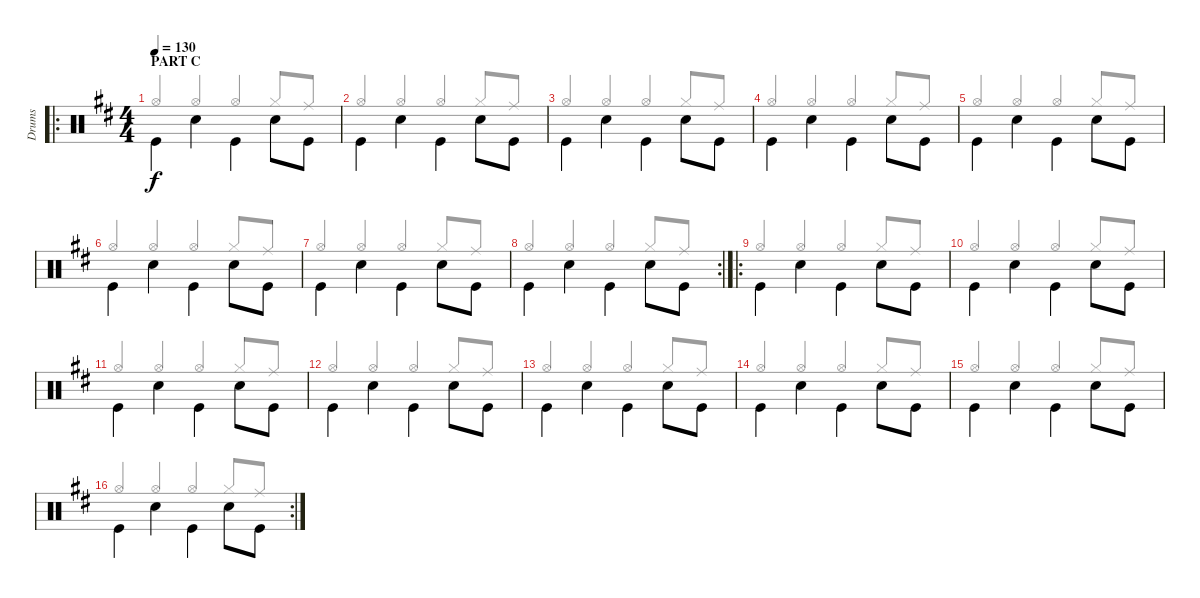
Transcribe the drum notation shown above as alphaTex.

\track ("Drums" "Drums") {instrument percussion}
\staff {score}
\articulation defaults
\voice
\ro
\ts (4 4)
\section ("" "PART C")
\tempo 130
\clef neutral
\ks d "Kick (hit)".4{dy f beam Down} "Snare (hit) 2".4{beam Down} "Kick (hit)".4{beam Down} "Snare (hit) 2".8{beam Down} "Kick (hit)".8{beam Down}
|
"Kick (hit)".4{beam Down} "Snare (hit) 2".4{beam Down} "Kick (hit)".4{beam Down} "Snare (hit) 2".8{beam Down} "Kick (hit)".8{beam Down} |
"Kick (hit)".4{beam Down} "Snare (hit) 2".4{beam Down} "Kick (hit)".4{beam Down} "Snare (hit) 2".8{beam Down} "Kick (hit)".8{beam Down} |
"Kick (hit)".4{beam Down} "Snare (hit) 2".4{beam Down} "Kick (hit)".4{beam Down} "Snare (hit) 2".8{beam Down} "Kick (hit)".8{beam Down} |
"Kick (hit)".4{beam Down} "Snare (hit) 2".4{beam Down} "Kick (hit)".4{beam Down} "Snare (hit) 2".8{beam Down} "Kick (hit)".8{beam Down} |
"Kick (hit)".4{beam Down} "Snare (hit) 2".4{beam Down} "Kick (hit)".4{beam Down} "Snare (hit) 2".8{beam Down} "Kick (hit)".8{beam Down} |
"Kick (hit)".4{beam Down} "Snare (hit) 2".4{beam Down} "Kick (hit)".4{beam Down} "Snare (hit) 2".8{beam Down} "Kick (hit)".8{beam Down} |
\rc 2 "Kick (hit)".4{beam Down} "Snare (hit) 2".4{beam Down} "Kick (hit)".4{beam Down} "Snare (hit) 2".8{beam Down} "Kick (hit)".8{beam Down}
|
\ro "Kick (hit)".4{beam Down} "Snare (hit) 2".4{beam Down} "Kick (hit)".4{beam Down} "Snare (hit) 2".8{beam Down} "Kick (hit)".8{beam Down}
|
"Kick (hit)".4{beam Down} "Snare (hit) 2".4{beam Down} "Kick (hit)".4{beam Down} "Snare (hit) 2".8{beam Down} "Kick (hit)".8{beam Down} |
"Kick (hit)".4{beam Down} "Snare (hit) 2".4{beam Down} "Kick (hit)".4{beam Down} "Snare (hit) 2".8{beam Down} "Kick (hit)".8{beam Down} |
"Kick (hit)".4{beam Down} "Snare (hit) 2".4{beam Down} "Kick (hit)".4{beam Down} "Snare (hit) 2".8{beam Down} "Kick (hit)".8{beam Down} |
"Kick (hit)".4{beam Down} "Snare (hit) 2".4{beam Down} "Kick (hit)".4{beam Down} "Snare (hit) 2".8{beam Down} "Kick (hit)".8{beam Down} |
"Kick (hit)".4{beam Down} "Snare (hit) 2".4{beam Down} "Kick (hit)".4{beam Down} "Snare (hit) 2".8{beam Down} "Kick (hit)".8{beam Down} |
"Kick (hit)".4{beam Down} "Snare (hit) 2".4{beam Down} "Kick (hit)".4{beam Down} "Snare (hit) 2".8{beam Down} "Kick (hit)".8{beam Down} |
\rc 2 "Kick (hit)".4{beam Down} "Snare (hit) 2".4{beam Down} "Kick (hit)".4{beam Down} "Snare (hit) 2".8{beam Down} "Kick (hit)".8{beam Down}
\voice
\clef neutral
\ottava regular
\simile none
\ks d "Hi-Hat (open)".4{dy f beam Up} "Hi-Hat (open)".4{beam Up} "Hi-Hat (open)".4{beam Up} "Hi-Hat (closed)".8{beam Up} "Ride (middle)".8{beam Up}
|
"Hi-Hat (open)".4{beam Up} "Hi-Hat (open)".4{beam Up} "Hi-Hat (open)".4{beam Up} "Hi-Hat (closed)".8{beam Up} "Ride (middle)".8{beam Up} |
"Hi-Hat (open)".4{beam Up} "Hi-Hat (open)".4{beam Up} "Hi-Hat (open)".4{beam Up} "Hi-Hat (closed)".8{beam Up} "Ride (middle)".8{beam Up} |
"Hi-Hat (open)".4{beam Up} "Hi-Hat (open)".4{beam Up} "Hi-Hat (open)".4{beam Up} "Hi-Hat (closed)".8{beam Up} "Ride (middle)".8{beam Up} |
"Hi-Hat (open)".4{beam Up} "Hi-Hat (open)".4{beam Up} "Hi-Hat (open)".4{beam Up} "Hi-Hat (closed)".8{beam Up} "Ride (middle)".8{beam Up} |
"Hi-Hat (open)".4{beam Up} "Hi-Hat (open)".4{beam Up} "Hi-Hat (open)".4{beam Up} "Hi-Hat (closed)".8{beam Up} "Ride (middle)".8{beam Up} |
"Hi-Hat (open)".4{beam Up} "Hi-Hat (open)".4{beam Up} "Hi-Hat (open)".4{beam Up} "Hi-Hat (closed)".8{beam Up} "Ride (middle)".8{beam Up} |
"Hi-Hat (open)".4{beam Up} "Hi-Hat (open)".4{beam Up} "Hi-Hat (open)".4{beam Up} "Hi-Hat (closed)".8{beam Up} "Ride (middle)".8{beam Up} |
"Hi-Hat (open)".4{beam Up} "Hi-Hat (open)".4{beam Up} "Hi-Hat (open)".4{beam Up} "Hi-Hat (closed)".8{beam Up} "Ride (middle)".8{beam Up} |
"Hi-Hat (open)".4{beam Up} "Hi-Hat (open)".4{beam Up} "Hi-Hat (open)".4{beam Up} "Hi-Hat (closed)".8{beam Up} "Ride (middle)".8{beam Up} |
"Hi-Hat (open)".4{beam Up} "Hi-Hat (open)".4{beam Up} "Hi-Hat (open)".4{beam Up} "Hi-Hat (closed)".8{beam Up} "Ride (middle)".8{beam Up} |
"Hi-Hat (open)".4{beam Up} "Hi-Hat (open)".4{beam Up} "Hi-Hat (open)".4{beam Up} "Hi-Hat (closed)".8{beam Up} "Ride (middle)".8{beam Up} |
"Hi-Hat (open)".4{beam Up} "Hi-Hat (open)".4{beam Up} "Hi-Hat (open)".4{beam Up} "Hi-Hat (closed)".8{beam Up} "Ride (middle)".8{beam Up} |
"Hi-Hat (open)".4{beam Up} "Hi-Hat (open)".4{beam Up} "Hi-Hat (open)".4{beam Up} "Hi-Hat (closed)".8{beam Up} "Ride (middle)".8{beam Up} |
"Hi-Hat (open)".4{beam Up} "Hi-Hat (open)".4{beam Up} "Hi-Hat (open)".4{beam Up} "Hi-Hat (closed)".8{beam Up} "Ride (middle)".8{beam Up} |
"Hi-Hat (open)".4{beam Up} "Hi-Hat (open)".4{beam Up} "Hi-Hat (open)".4{beam Up} "Hi-Hat (closed)".8{beam Up} "Ride (middle)".8{beam Up}
